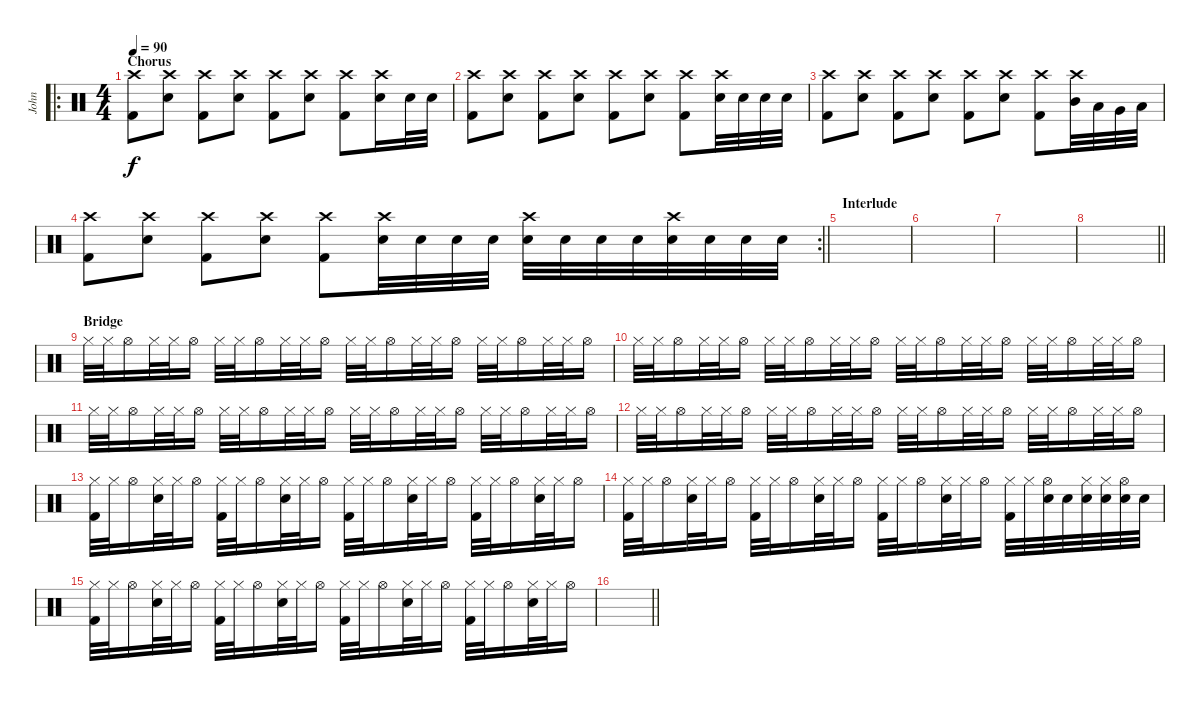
\track ("John" "John") {instrument percussion}
\staff {score}
\articulation defaults
\ro
\ts (4 4)
\section ("" "Chorus")
\tempo 90
\clef neutral
\ks c
("Crash high (hit)" "Kick (hit) 2").8{dy f} ("Crash high (hit)" "Electric Snare (hit)").8 ("Crash high (hit)" "Kick (hit) 2").8 ("Crash high (hit)" "Electric Snare (hit)").8 ("Crash high (hit)" "Kick (hit) 2").8 ("Crash high (hit)" "Electric Snare (hit)").8 ("Crash high (hit)" "Kick (hit) 2").8 ("Crash high (hit)" "Electric Snare (hit)").16 "Electric Snare (hit)".32 "Electric Snare (hit)".32 |
("Crash high (hit)" "Kick (hit) 2").8 ("Crash high (hit)" "Electric Snare (hit)").8 ("Crash high (hit)" "Kick (hit) 2").8 ("Crash high (hit)" "Electric Snare (hit)").8 ("Crash high (hit)" "Kick (hit) 2").8 ("Crash high (hit)" "Electric Snare (hit)").8 ("Crash high (hit)" "Kick (hit) 2").8 ("Crash high (hit)" "Electric Snare (hit)").32 "Electric Snare (hit)".32 "Electric Snare (hit)".32 "Electric Snare (hit)".32 |
("Crash high (hit)" "Kick (hit) 2").8 ("Crash high (hit)" "Electric Snare (hit)").8 ("Crash high (hit)" "Kick (hit) 2").8 ("Crash high (hit)" "Electric Snare (hit)").8 ("Crash high (hit)" "Kick (hit) 2").8 ("Crash high (hit)" "Electric Snare (hit)").8 ("Crash high (hit)" "Kick (hit) 2").8 ("Crash high (hit)" "Mid Tom (hit)").32 "Low Tom (hit)".32 "Very Low Tom (hit)".32 "Low Floor Tom (hit)".32 |
\rc 2
\barLineRight lightlight
("Crash high (hit)" "Kick (hit) 2").8 ("Crash high (hit)" "Electric Snare (hit)").8 ("Crash high (hit)" "Kick (hit) 2").8 ("Crash high (hit)" "Electric Snare (hit)").8 ("Crash high (hit)" "Kick (hit) 2").8 ("Crash high (hit)" "Electric Snare (hit)").32 "Electric Snare (hit)".32 "Electric Snare (hit)".32 "Electric Snare (hit)".32 ("Crash high (hit)" "Electric Snare (hit)").32 "Electric Snare (hit)".32 "Electric Snare (hit)".32 "Electric Snare (hit)".32 ("Crash high (hit)" "Electric Snare (hit)").32 "Electric Snare (hit)".32 "Electric Snare (hit)".32 "Electric Snare (hit)".32 |
\section ("" "Interlude")
|
|
|
\barLineRight lightlight
|
\section ("" "Bridge")
"Hi-Hat (closed)".32 "Hi-Hat (closed)".32 "Hi-Hat (open)".16 "Hi-Hat (closed)".32 "Hi-Hat (closed)".32 "Hi-Hat (open)".16 "Hi-Hat (closed)".32 "Hi-Hat (closed)".32 "Hi-Hat (open)".16 "Hi-Hat (closed)".32 "Hi-Hat (closed)".32 "Hi-Hat (open)".16 "Hi-Hat (closed)".32 "Hi-Hat (closed)".32 "Hi-Hat (open)".16 "Hi-Hat (closed)".32 "Hi-Hat (closed)".32 "Hi-Hat (open)".16 "Hi-Hat (closed)".32 "Hi-Hat (closed)".32 "Hi-Hat (open)".16 "Hi-Hat (closed)".32 "Hi-Hat (closed)".32 "Hi-Hat (open)".16 |
"Hi-Hat (closed)".32 "Hi-Hat (closed)".32 "Hi-Hat (open)".16 "Hi-Hat (closed)".32 "Hi-Hat (closed)".32 "Hi-Hat (open)".16 "Hi-Hat (closed)".32 "Hi-Hat (closed)".32 "Hi-Hat (open)".16 "Hi-Hat (closed)".32 "Hi-Hat (closed)".32 "Hi-Hat (open)".16 "Hi-Hat (closed)".32 "Hi-Hat (closed)".32 "Hi-Hat (open)".16 "Hi-Hat (closed)".32 "Hi-Hat (closed)".32 "Hi-Hat (open)".16 "Hi-Hat (closed)".32 "Hi-Hat (closed)".32 "Hi-Hat (open)".16 "Hi-Hat (closed)".32 "Hi-Hat (closed)".32 "Hi-Hat (open)".16 |
"Hi-Hat (closed)".32 "Hi-Hat (closed)".32 "Hi-Hat (open)".16 "Hi-Hat (closed)".32 "Hi-Hat (closed)".32 "Hi-Hat (open)".16 "Hi-Hat (closed)".32 "Hi-Hat (closed)".32 "Hi-Hat (open)".16 "Hi-Hat (closed)".32 "Hi-Hat (closed)".32 "Hi-Hat (open)".16 "Hi-Hat (closed)".32 "Hi-Hat (closed)".32 "Hi-Hat (open)".16 "Hi-Hat (closed)".32 "Hi-Hat (closed)".32 "Hi-Hat (open)".16 "Hi-Hat (closed)".32 "Hi-Hat (closed)".32 "Hi-Hat (open)".16 "Hi-Hat (closed)".32 "Hi-Hat (closed)".32 "Hi-Hat (open)".16 |
"Hi-Hat (closed)".32 "Hi-Hat (closed)".32 "Hi-Hat (open)".16 "Hi-Hat (closed)".32 "Hi-Hat (closed)".32 "Hi-Hat (open)".16 "Hi-Hat (closed)".32 "Hi-Hat (closed)".32 "Hi-Hat (open)".16 "Hi-Hat (closed)".32 "Hi-Hat (closed)".32 "Hi-Hat (open)".16 "Hi-Hat (closed)".32 "Hi-Hat (closed)".32 "Hi-Hat (open)".16 "Hi-Hat (closed)".32 "Hi-Hat (closed)".32 "Hi-Hat (open)".16 "Hi-Hat (closed)".32 "Hi-Hat (closed)".32 "Hi-Hat (open)".16 "Hi-Hat (closed)".32 "Hi-Hat (closed)".32 "Hi-Hat (open)".16 |
("Hi-Hat (closed)" "Kick (hit) 2").32 "Hi-Hat (closed)".32 "Hi-Hat (open)".16 ("Hi-Hat (closed)" "Electric Snare (hit)").32 "Hi-Hat (closed)".32 "Hi-Hat (open)".16 ("Hi-Hat (closed)" "Kick (hit) 2").32 "Hi-Hat (closed)".32 "Hi-Hat (open)".16 ("Hi-Hat (closed)" "Electric Snare (hit)").32 "Hi-Hat (closed)".32 "Hi-Hat (open)".16 ("Hi-Hat (closed)" "Kick (hit) 2").32 "Hi-Hat (closed)".32 "Hi-Hat (open)".16 ("Hi-Hat (closed)" "Electric Snare (hit)").32 "Hi-Hat (closed)".32 "Hi-Hat (open)".16 ("Hi-Hat (closed)" "Kick (hit) 2").32 "Hi-Hat (closed)".32 "Hi-Hat (open)".16 ("Hi-Hat (closed)" "Electric Snare (hit)").32 "Hi-Hat (closed)".32 "Hi-Hat (open)".16 |
("Hi-Hat (closed)" "Kick (hit) 2").32 "Hi-Hat (closed)".32 "Hi-Hat (open)".16 ("Hi-Hat (closed)" "Electric Snare (hit)").32 "Hi-Hat (closed)".32 "Hi-Hat (open)".16 ("Hi-Hat (closed)" "Kick (hit) 2").32 "Hi-Hat (closed)".32 "Hi-Hat (open)".16 ("Hi-Hat (closed)" "Electric Snare (hit)").32 "Hi-Hat (closed)".32 "Hi-Hat (open)".16 ("Hi-Hat (closed)" "Kick (hit) 2").32 "Hi-Hat (closed)".32 "Hi-Hat (open)".16 ("Hi-Hat (closed)" "Electric Snare (hit)").32 "Hi-Hat (closed)".32 "Hi-Hat (open)".16 ("Hi-Hat (closed)" "Kick (hit) 2").32 "Hi-Hat (closed)".32 ("Hi-Hat (open)" "Electric Snare (hit)").32 "Electric Snare (hit)".32 ("Hi-Hat (closed)" "Electric Snare (hit)").32 ("Hi-Hat (closed)" "Electric Snare (hit)").32 ("Hi-Hat (open)" "Electric Snare (hit)").32 "Electric Snare (hit)".32 |
("Hi-Hat (closed)" "Kick (hit) 2").32 "Hi-Hat (closed)".32 "Hi-Hat (open)".16 ("Hi-Hat (closed)" "Electric Snare (hit)").32 "Hi-Hat (closed)".32 "Hi-Hat (open)".16 ("Hi-Hat (closed)" "Kick (hit) 2").32 "Hi-Hat (closed)".32 "Hi-Hat (open)".16 ("Hi-Hat (closed)" "Electric Snare (hit)").32 "Hi-Hat (closed)".32 "Hi-Hat (open)".16 ("Hi-Hat (closed)" "Kick (hit) 2").32 "Hi-Hat (closed)".32 "Hi-Hat (open)".16 ("Hi-Hat (closed)" "Electric Snare (hit)").32 "Hi-Hat (closed)".32 "Hi-Hat (open)".16 ("Hi-Hat (closed)" "Kick (hit) 2").32 "Hi-Hat (closed)".32 "Hi-Hat (open)".16 ("Hi-Hat (closed)" "Electric Snare (hit)").32 "Hi-Hat (closed)".32 "Hi-Hat (open)".16 |
\barLineRight lightlight
